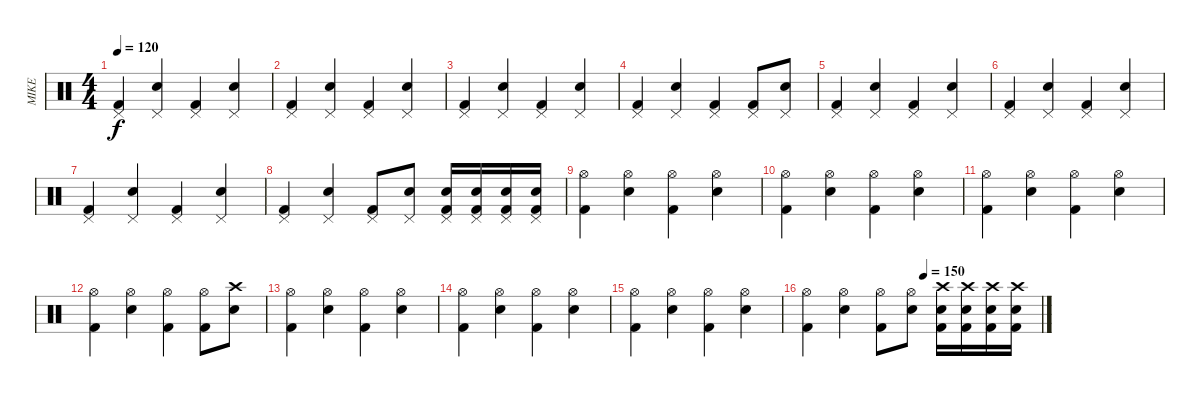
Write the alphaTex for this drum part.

\track ("MIKE" "MIKE") {instrument percussion}
\staff {score}
\articulation defaults
\ts (4 4)
\tempo 120
\clef neutral
\ks c
("Pedal Hi-Hat (hit)" "Kick (hit) 2").4{dy f} ("Pedal Hi-Hat (hit)" "Electric Snare (hit)").4 ("Pedal Hi-Hat (hit)" "Kick (hit) 2").4 ("Pedal Hi-Hat (hit)" "Electric Snare (hit)").4 |
("Pedal Hi-Hat (hit)" "Kick (hit) 2").4 ("Pedal Hi-Hat (hit)" "Electric Snare (hit)").4 ("Pedal Hi-Hat (hit)" "Kick (hit) 2").4 ("Pedal Hi-Hat (hit)" "Electric Snare (hit)").4 |
("Pedal Hi-Hat (hit)" "Kick (hit) 2").4 ("Pedal Hi-Hat (hit)" "Electric Snare (hit)").4 ("Pedal Hi-Hat (hit)" "Kick (hit) 2").4 ("Pedal Hi-Hat (hit)" "Electric Snare (hit)").4 |
("Pedal Hi-Hat (hit)" "Kick (hit) 2").4 ("Pedal Hi-Hat (hit)" "Electric Snare (hit)").4 ("Pedal Hi-Hat (hit)" "Kick (hit) 2").4 ("Pedal Hi-Hat (hit)" "Kick (hit) 2").8 ("Pedal Hi-Hat (hit)" "Electric Snare (hit)").8 |
("Pedal Hi-Hat (hit)" "Kick (hit) 2").4 ("Pedal Hi-Hat (hit)" "Electric Snare (hit)").4 ("Pedal Hi-Hat (hit)" "Kick (hit) 2").4 ("Pedal Hi-Hat (hit)" "Electric Snare (hit)").4 |
("Pedal Hi-Hat (hit)" "Kick (hit) 2").4 ("Pedal Hi-Hat (hit)" "Electric Snare (hit)").4 ("Pedal Hi-Hat (hit)" "Kick (hit) 2").4 ("Pedal Hi-Hat (hit)" "Electric Snare (hit)").4 |
("Pedal Hi-Hat (hit)" "Kick (hit) 2").4 ("Pedal Hi-Hat (hit)" "Electric Snare (hit)").4 ("Pedal Hi-Hat (hit)" "Kick (hit) 2").4 ("Pedal Hi-Hat (hit)" "Electric Snare (hit)").4 |
("Pedal Hi-Hat (hit)" "Kick (hit) 2").4 ("Pedal Hi-Hat (hit)" "Electric Snare (hit)").4 ("Pedal Hi-Hat (hit)" "Kick (hit) 2").8 ("Pedal Hi-Hat (hit)" "Electric Snare (hit)").8 ("Kick (hit) 2" "Pedal Hi-Hat (hit)" "Electric Snare (hit)").16 ("Kick (hit) 2" "Pedal Hi-Hat (hit)" "Electric Snare (hit)").16 ("Kick (hit) 2" "Pedal Hi-Hat (hit)" "Electric Snare (hit)").16 ("Kick (hit) 2" "Pedal Hi-Hat (hit)" "Electric Snare (hit)").16 |
("Hi-Hat (open)" "Kick (hit) 2").4 ("Hi-Hat (open)" "Electric Snare (hit)").4 ("Hi-Hat (open)" "Kick (hit) 2").4 ("Hi-Hat (open)" "Electric Snare (hit)").4 |
("Hi-Hat (open)" "Kick (hit) 2").4 ("Hi-Hat (open)" "Electric Snare (hit)").4 ("Hi-Hat (open)" "Kick (hit) 2").4 ("Hi-Hat (open)" "Electric Snare (hit)").4 |
("Hi-Hat (open)" "Kick (hit) 2").4 ("Hi-Hat (open)" "Electric Snare (hit)").4 ("Hi-Hat (open)" "Kick (hit) 2").4 ("Hi-Hat (open)" "Electric Snare (hit)").4 |
("Hi-Hat (open)" "Kick (hit) 2").4 ("Hi-Hat (open)" "Electric Snare (hit)").4 ("Hi-Hat (open)" "Kick (hit) 2").4 ("Hi-Hat (open)" "Kick (hit) 2").8 ("Crash high (hit)" "Electric Snare (hit)").8 |
("Hi-Hat (open)" "Kick (hit) 2").4 ("Hi-Hat (open)" "Electric Snare (hit)").4 ("Hi-Hat (open)" "Kick (hit) 2").4 ("Hi-Hat (open)" "Electric Snare (hit)").4 |
("Hi-Hat (open)" "Kick (hit) 2").4 ("Hi-Hat (open)" "Electric Snare (hit)").4 ("Hi-Hat (open)" "Kick (hit) 2").4 ("Hi-Hat (open)" "Electric Snare (hit)").4 |
("Hi-Hat (open)" "Kick (hit) 2").4 ("Hi-Hat (open)" "Electric Snare (hit)").4 ("Hi-Hat (open)" "Kick (hit) 2").4 ("Hi-Hat (open)" "Electric Snare (hit)").4 |
\tempo (150 0.5)
("Hi-Hat (open)" "Kick (hit) 2").4 ("Hi-Hat (open)" "Electric Snare (hit)").4 ("Hi-Hat (open)" "Kick (hit) 2").8 ("Hi-Hat (open)" "Electric Snare (hit)").8 ("Kick (hit) 2" "Crash high (hit)" "Electric Snare (hit)").16 ("Kick (hit) 2" "Crash high (hit)" "Electric Snare (hit)").16 ("Kick (hit) 2" "Crash high (hit)" "Electric Snare (hit)").16 ("Kick (hit) 2" "Crash high (hit)" "Electric Snare (hit)").16
